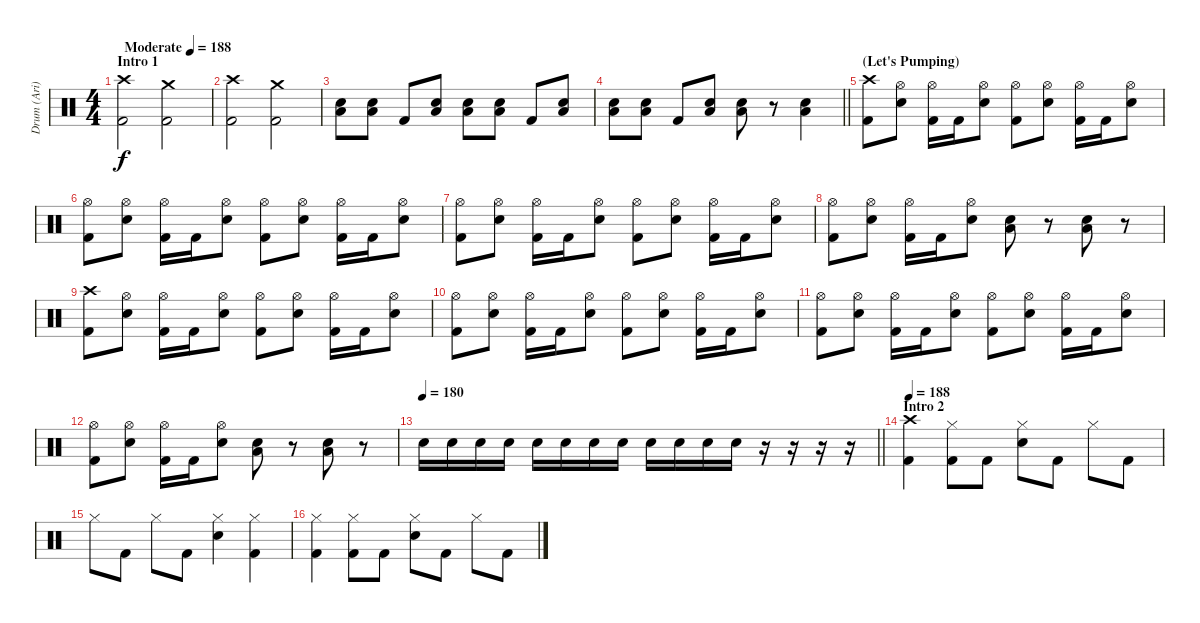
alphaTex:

\track ("Drum (Ari)" "Drum (Ari)") {instrument percussion}
\staff {score}
\articulation defaults
\ts (4 4)
\section ("" "Intro 1")
\tempo (188 "Moderate")
\clef neutral
\ks c
("Crash high (hit)" "Kick (hit) 2").2{dy f} ("Crash medium (hit)" "Kick (hit) 2").2 |
("Crash high (hit)" "Kick (hit) 2").2 ("Crash medium (hit)" "Kick (hit) 2").2 |
("Low Floor Tom (hit)" "Electric Snare (hit)").8 ("Electric Snare (hit)" "Low Floor Tom (hit)").8 "Kick (hit) 2".8 ("Electric Snare (hit)" "Low Floor Tom (hit)").8 ("Electric Snare (hit)" "Low Floor Tom (hit)").8 ("Electric Snare (hit)" "Low Floor Tom (hit)").8 "Kick (hit) 2".8 ("Electric Snare (hit)" "Low Floor Tom (hit)").8 |
\barLineRight lightlight
("Low Floor Tom (hit)" "Electric Snare (hit)").8 ("Electric Snare (hit)" "Low Floor Tom (hit)").8 "Kick (hit) 2".8 ("Electric Snare (hit)" "Low Floor Tom (hit)").8 ("Electric Snare (hit)" "Low Floor Tom (hit)").8 r.8 ("Electric Snare (hit)" "Low Floor Tom (hit)").4 |
\section ("" "(Let's Pumping)")
("Crash high (hit)" "Kick (hit) 2").8 ("Hi-Hat (open)" "Electric Snare (hit)").8 ("Hi-Hat (open)" "Kick (hit) 2").16 "Kick (hit) 2".16 ("Hi-Hat (open)" "Electric Snare (hit)").8 ("Hi-Hat (open)" "Kick (hit) 2").8 ("Hi-Hat (open)" "Electric Snare (hit)").8 ("Hi-Hat (open)" "Kick (hit) 2").16 "Kick (hit) 2".16 ("Hi-Hat (open)" "Electric Snare (hit)").8 |
("Hi-Hat (open)" "Kick (hit) 2").8 ("Hi-Hat (open)" "Electric Snare (hit)").8 ("Hi-Hat (open)" "Kick (hit) 2").16 "Kick (hit) 2".16 ("Hi-Hat (open)" "Electric Snare (hit)").8 ("Hi-Hat (open)" "Kick (hit) 2").8 ("Hi-Hat (open)" "Electric Snare (hit)").8 ("Hi-Hat (open)" "Kick (hit) 2").16 "Kick (hit) 2".16 ("Hi-Hat (open)" "Electric Snare (hit)").8 |
("Hi-Hat (open)" "Kick (hit) 2").8 ("Hi-Hat (open)" "Electric Snare (hit)").8 ("Hi-Hat (open)" "Kick (hit) 2").16 "Kick (hit) 2".16 ("Hi-Hat (open)" "Electric Snare (hit)").8 ("Hi-Hat (open)" "Kick (hit) 2").8 ("Hi-Hat (open)" "Electric Snare (hit)").8 ("Hi-Hat (open)" "Kick (hit) 2").16 "Kick (hit) 2".16 ("Hi-Hat (open)" "Electric Snare (hit)").8 |
("Hi-Hat (open)" "Kick (hit) 2").8 ("Hi-Hat (open)" "Electric Snare (hit)").8 ("Hi-Hat (open)" "Kick (hit) 2").16 "Kick (hit) 2".16 ("Hi-Hat (open)" "Electric Snare (hit)").8 ("Electric Snare (hit)" "Low Floor Tom (hit)").8 r.8 ("Electric Snare (hit)" "Low Floor Tom (hit)").8 r.8 |
("Crash high (hit)" "Kick (hit) 2").8 ("Hi-Hat (open)" "Electric Snare (hit)").8 ("Hi-Hat (open)" "Kick (hit) 2").16 "Kick (hit) 2".16 ("Hi-Hat (open)" "Electric Snare (hit)").8 ("Hi-Hat (open)" "Kick (hit) 2").8 ("Hi-Hat (open)" "Electric Snare (hit)").8 ("Hi-Hat (open)" "Kick (hit) 2").16 "Kick (hit) 2".16 ("Hi-Hat (open)" "Electric Snare (hit)").8 |
("Hi-Hat (open)" "Kick (hit) 2").8 ("Hi-Hat (open)" "Electric Snare (hit)").8 ("Hi-Hat (open)" "Kick (hit) 2").16 "Kick (hit) 2".16 ("Hi-Hat (open)" "Electric Snare (hit)").8 ("Hi-Hat (open)" "Kick (hit) 2").8 ("Hi-Hat (open)" "Electric Snare (hit)").8 ("Hi-Hat (open)" "Kick (hit) 2").16 "Kick (hit) 2".16 ("Hi-Hat (open)" "Electric Snare (hit)").8 |
("Hi-Hat (open)" "Kick (hit) 2").8 ("Hi-Hat (open)" "Electric Snare (hit)").8 ("Hi-Hat (open)" "Kick (hit) 2").16 "Kick (hit) 2".16 ("Hi-Hat (open)" "Electric Snare (hit)").8 ("Hi-Hat (open)" "Kick (hit) 2").8 ("Hi-Hat (open)" "Electric Snare (hit)").8 ("Hi-Hat (open)" "Kick (hit) 2").16 "Kick (hit) 2".16 ("Hi-Hat (open)" "Electric Snare (hit)").8 |
("Hi-Hat (open)" "Kick (hit) 2").8 ("Hi-Hat (open)" "Electric Snare (hit)").8 ("Hi-Hat (open)" "Kick (hit) 2").16 "Kick (hit) 2".16 ("Hi-Hat (open)" "Electric Snare (hit)").8 ("Electric Snare (hit)" "Low Floor Tom (hit)").8 r.8 ("Electric Snare (hit)" "Low Floor Tom (hit)").8 r.8 |
\tempo 180
\barLineRight lightlight "Electric Snare (hit)".16 "Electric Snare (hit)".16{volume 9} "Electric Snare (hit)".16 "Electric Snare (hit)".16{volume 13} "Electric Snare (hit)".16 "Electric Snare (hit)".16 "Electric Snare (hit)".16 "Electric Snare (hit)".16 "Electric Snare (hit)".16 "Electric Snare (hit)".16 "Electric Snare (hit)".16 "Electric Snare (hit)".16
r.16 r.16 r.16 r.16 |
\section ("" "Intro 2")
\tempo 188
("Crash high (hit)" "Kick (hit) 2").4 ("Hi-Hat (closed)" "Kick (hit) 2").8 "Kick (hit) 2".8 ("Hi-Hat (closed)" "Electric Snare (hit)").8 "Kick (hit) 2".8 "Hi-Hat (closed)".8 "Kick (hit) 2".8 |
"Hi-Hat (closed)".8 "Kick (hit) 2".8 "Hi-Hat (closed)".8 "Kick (hit) 2".8 ("Hi-Hat (closed)" "Electric Snare (hit)").4 ("Hi-Hat (closed)" "Kick (hit) 2").4 |
("Hi-Hat (closed)" "Kick (hit) 2").4 ("Hi-Hat (closed)" "Kick (hit) 2").8 "Kick (hit) 2".8 ("Hi-Hat (closed)" "Electric Snare (hit)").8 "Kick (hit) 2".8 "Hi-Hat (closed)".8 "Kick (hit) 2".8
